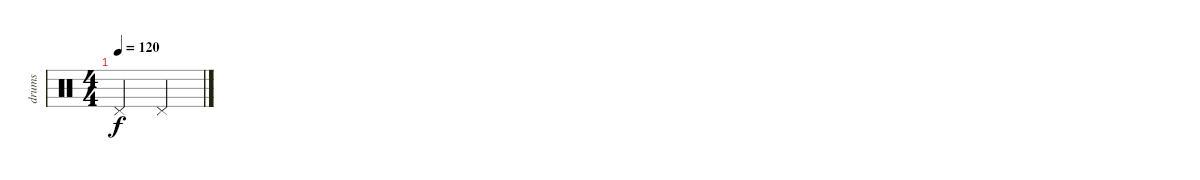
\track ("drums" "drums") {instrument percussion}
\staff {score}
\articulation defaults
\ts (4 4)
\tempo 120
\clef neutral
\ks c "Pedal Hi-Hat (hit)".2{dy f} "Pedal Hi-Hat (hit)".2
